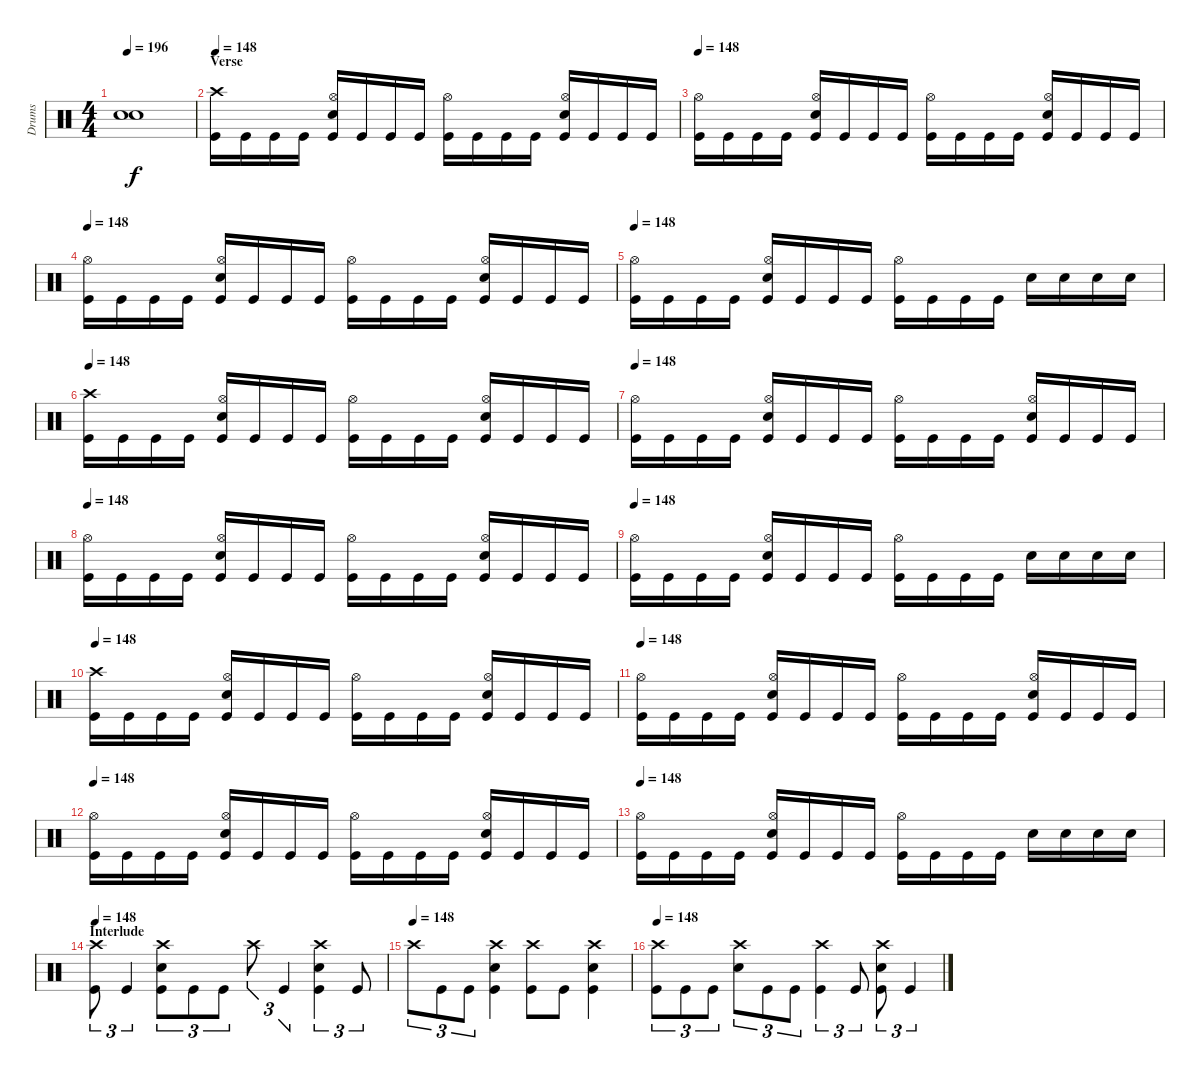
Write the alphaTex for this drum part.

\track ("Drums" "Drums") {instrument percussion}
\staff {score}
\articulation defaults
\ts (4 4)
\tempo 196
\clef neutral
\ks c
("Snare (hit)"{t} "Snare (hit)"{t}).1{dy f} |
\section ("" "Verse")
\tempo 148
("Crash high (hit)" "Kick (hit)").16 "Kick (hit)".16 "Kick (hit)".16 "Kick (hit)".16 ("Hi-Hat (open)" "Electric Snare (hit)" "Kick (hit)").16 "Kick (hit)".16 "Kick (hit)".16 "Kick (hit)".16 ("Hi-Hat (open)" "Kick (hit)").16 "Kick (hit)".16 "Kick (hit)".16 "Kick (hit)".16 ("Hi-Hat (open)" "Electric Snare (hit)" "Kick (hit)").16 "Kick (hit)".16 "Kick (hit)".16 "Kick (hit)".16 |
\tempo 148
("Hi-Hat (open)" "Kick (hit)").16 "Kick (hit)".16 "Kick (hit)".16 "Kick (hit)".16 ("Hi-Hat (open)" "Electric Snare (hit)" "Kick (hit)").16 "Kick (hit)".16 "Kick (hit)".16 "Kick (hit)".16 ("Hi-Hat (open)" "Kick (hit)").16 "Kick (hit)".16 "Kick (hit)".16 "Kick (hit)".16 ("Hi-Hat (open)" "Electric Snare (hit)" "Kick (hit)").16 "Kick (hit)".16 "Kick (hit)".16 "Kick (hit)".16 |
\tempo 148
("Hi-Hat (open)" "Kick (hit)").16 "Kick (hit)".16 "Kick (hit)".16 "Kick (hit)".16 ("Hi-Hat (open)" "Electric Snare (hit)" "Kick (hit)").16 "Kick (hit)".16 "Kick (hit)".16 "Kick (hit)".16 ("Hi-Hat (open)" "Kick (hit)").16 "Kick (hit)".16 "Kick (hit)".16 "Kick (hit)".16 ("Hi-Hat (open)" "Electric Snare (hit)" "Kick (hit)").16 "Kick (hit)".16 "Kick (hit)".16 "Kick (hit)".16 |
\tempo 148
("Hi-Hat (open)" "Kick (hit)").16 "Kick (hit)".16 "Kick (hit)".16 "Kick (hit)".16 ("Hi-Hat (open)" "Electric Snare (hit)" "Kick (hit)").16 "Kick (hit)".16 "Kick (hit)".16 "Kick (hit)".16 ("Hi-Hat (open)" "Kick (hit)").16 "Kick (hit)".16 "Kick (hit)".16 "Kick (hit)".16 "Electric Snare (hit)".16 "Electric Snare (hit)".16 "Electric Snare (hit)".16 "Electric Snare (hit)".16 |
\tempo 148
("Crash high (hit)" "Kick (hit)").16 "Kick (hit)".16 "Kick (hit)".16 "Kick (hit)".16 ("Hi-Hat (open)" "Electric Snare (hit)" "Kick (hit)").16 "Kick (hit)".16 "Kick (hit)".16 "Kick (hit)".16 ("Hi-Hat (open)" "Kick (hit)").16 "Kick (hit)".16 "Kick (hit)".16 "Kick (hit)".16 ("Hi-Hat (open)" "Electric Snare (hit)" "Kick (hit)").16 "Kick (hit)".16 "Kick (hit)".16 "Kick (hit)".16 |
\tempo 148
("Hi-Hat (open)" "Kick (hit)").16 "Kick (hit)".16 "Kick (hit)".16 "Kick (hit)".16 ("Hi-Hat (open)" "Electric Snare (hit)" "Kick (hit)").16 "Kick (hit)".16 "Kick (hit)".16 "Kick (hit)".16 ("Hi-Hat (open)" "Kick (hit)").16 "Kick (hit)".16 "Kick (hit)".16 "Kick (hit)".16 ("Hi-Hat (open)" "Electric Snare (hit)" "Kick (hit)").16 "Kick (hit)".16 "Kick (hit)".16 "Kick (hit)".16 |
\tempo 148
("Hi-Hat (open)" "Kick (hit)").16 "Kick (hit)".16 "Kick (hit)".16 "Kick (hit)".16 ("Hi-Hat (open)" "Electric Snare (hit)" "Kick (hit)").16 "Kick (hit)".16 "Kick (hit)".16 "Kick (hit)".16 ("Hi-Hat (open)" "Kick (hit)").16 "Kick (hit)".16 "Kick (hit)".16 "Kick (hit)".16 ("Hi-Hat (open)" "Electric Snare (hit)" "Kick (hit)").16 "Kick (hit)".16 "Kick (hit)".16 "Kick (hit)".16 |
\tempo 148
("Hi-Hat (open)" "Kick (hit)").16 "Kick (hit)".16 "Kick (hit)".16 "Kick (hit)".16 ("Hi-Hat (open)" "Electric Snare (hit)" "Kick (hit)").16 "Kick (hit)".16 "Kick (hit)".16 "Kick (hit)".16 ("Hi-Hat (open)" "Kick (hit)").16 "Kick (hit)".16 "Kick (hit)".16 "Kick (hit)".16 "Electric Snare (hit)".16 "Electric Snare (hit)".16 "Electric Snare (hit)".16 "Electric Snare (hit)".16 |
\tempo 148
("Crash high (hit)" "Kick (hit)").16 "Kick (hit)".16 "Kick (hit)".16 "Kick (hit)".16 ("Hi-Hat (open)" "Electric Snare (hit)" "Kick (hit)").16 "Kick (hit)".16 "Kick (hit)".16 "Kick (hit)".16 ("Hi-Hat (open)" "Kick (hit)").16 "Kick (hit)".16 "Kick (hit)".16 "Kick (hit)".16 ("Hi-Hat (open)" "Electric Snare (hit)" "Kick (hit)").16 "Kick (hit)".16 "Kick (hit)".16 "Kick (hit)".16 |
\tempo 148
("Hi-Hat (open)" "Kick (hit)").16 "Kick (hit)".16 "Kick (hit)".16 "Kick (hit)".16 ("Hi-Hat (open)" "Electric Snare (hit)" "Kick (hit)").16 "Kick (hit)".16 "Kick (hit)".16 "Kick (hit)".16 ("Hi-Hat (open)" "Kick (hit)").16 "Kick (hit)".16 "Kick (hit)".16 "Kick (hit)".16 ("Hi-Hat (open)" "Electric Snare (hit)" "Kick (hit)").16 "Kick (hit)".16 "Kick (hit)".16 "Kick (hit)".16 |
\tempo 148
("Hi-Hat (open)" "Kick (hit)").16 "Kick (hit)".16 "Kick (hit)".16 "Kick (hit)".16 ("Hi-Hat (open)" "Electric Snare (hit)" "Kick (hit)").16 "Kick (hit)".16 "Kick (hit)".16 "Kick (hit)".16 ("Hi-Hat (open)" "Kick (hit)").16 "Kick (hit)".16 "Kick (hit)".16 "Kick (hit)".16 ("Hi-Hat (open)" "Electric Snare (hit)" "Kick (hit)").16 "Kick (hit)".16 "Kick (hit)".16 "Kick (hit)".16 |
\tempo 148
("Hi-Hat (open)" "Kick (hit)").16 "Kick (hit)".16 "Kick (hit)".16 "Kick (hit)".16 ("Hi-Hat (open)" "Electric Snare (hit)" "Kick (hit)").16 "Kick (hit)".16 "Kick (hit)".16 "Kick (hit)".16 ("Hi-Hat (open)" "Kick (hit)").16 "Kick (hit)".16 "Kick (hit)".16 "Kick (hit)".16 "Electric Snare (hit)".16 "Electric Snare (hit)".16 "Electric Snare (hit)".16 "Electric Snare (hit)".16 |
\section ("" "Interlude")
\tempo 148
("Crash high (hit)" "Kick (hit)").8{tu (3 2)} "Kick (hit)".4{tu (3 2)} ("Crash high (hit)" "Electric Snare (hit)" "Kick (hit)").8{tu (3 2)} "Kick (hit)".8{tu (3 2)} "Kick (hit)".8{tu (3 2)} "Crash high (hit)".8{tu (3 2)} "Kick (hit)".4{tu (3 2)} ("Crash high (hit)" "Electric Snare (hit)" "Kick (hit)").4{tu (3 2)} "Kick (hit)".8{tu (3 2)} |
\tempo (148)
"Crash high (hit)".8{tu (3 2)} "Kick (hit)".8{tu (3 2)} "Kick (hit)".8{tu (3 2)} ("Crash high (hit)" "Electric Snare (hit)" "Kick (hit)").4 ("Crash high (hit)" "Kick (hit)").8 "Kick (hit)".8 ("Crash high (hit)" "Electric Snare (hit)" "Kick (hit)").4 |
\tempo 148
("Crash high (hit)" "Kick (hit)").8{tu (3 2)} "Kick (hit)".8{tu (3 2)} "Kick (hit)".8{tu (3 2)} ("Crash high (hit)" "Electric Snare (hit)").8{tu (3 2)} "Kick (hit)".8{tu (3 2)} "Kick (hit)".8{tu (3 2)} ("Crash high (hit)" "Kick (hit)").4{tu (3 2)} "Kick (hit)".8{tu (3 2)} ("Crash high (hit)" "Electric Snare (hit)" "Kick (hit)").8{tu (3 2)} "Kick (hit)".4{tu (3 2)}
